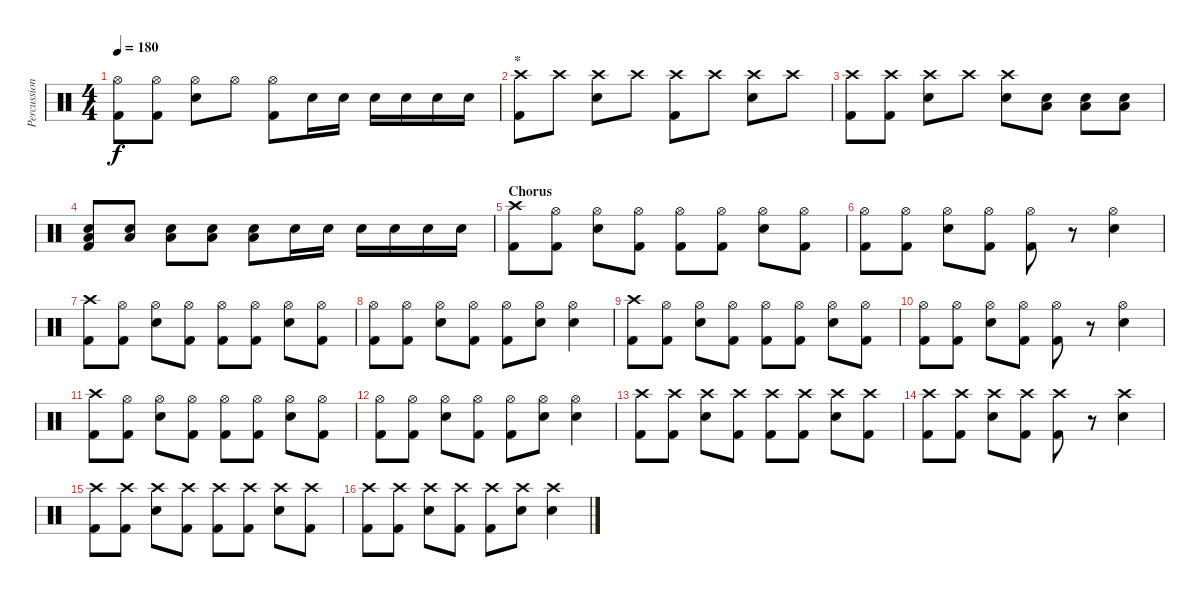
\track ("Percussion" "Percussion") {instrument percussion}
\staff {score}
\articulation defaults
\ts (4 4)
\tempo 180
\clef neutral
\ks c
("Hi-Hat (open)" "Kick (hit) 2").8{dy f} ("Hi-Hat (open)" "Kick (hit) 2").8 ("Hi-Hat (open)" "Snare (hit) 2").8 "Hi-Hat (open)".8 ("Hi-Hat (open)" "Kick (hit) 2").8 "Snare (hit) 2".16 "Snare (hit) 2".16 "Snare (hit) 2".16 "Snare (hit) 2".16 "Snare (hit) 2".16 "Snare (hit) 2".16 |
\section ("" "*")
("Crash high (hit)" "Kick (hit) 2").8 "Crash high (hit)".8 ("Crash high (hit)" "Snare (hit) 2").8 "Crash high (hit)".8 ("Crash high (hit)" "Kick (hit) 2").8 "Crash high (hit)".8 ("Crash high (hit)" "Snare (hit) 2").8 "Crash high (hit)".8 |
("Crash high (hit)" "Kick (hit) 2").8 ("Crash high (hit)" "Kick (hit) 2").8 ("Crash high (hit)" "Snare (hit) 2").8 "Crash high (hit)".8 ("Crash high (hit)" "Snare (hit) 2").8 ("Low Floor Tom (hit)" "Snare (hit) 2").8 ("Low Floor Tom (hit)" "Snare (hit) 2").8 ("Low Floor Tom (hit)" "Snare (hit) 2").8 |
("Low Floor Tom (hit)" "Snare (hit) 2" "Kick (hit) 2").8 ("Low Floor Tom (hit)" "Snare (hit) 2").8 ("Low Floor Tom (hit)" "Snare (hit) 2").8 ("Low Floor Tom (hit)" "Snare (hit) 2").8 ("Low Floor Tom (hit)" "Snare (hit) 2").8 "Snare (hit) 2".16 "Snare (hit) 2".16 "Snare (hit) 2".16 "Snare (hit) 2".16 "Snare (hit) 2".16 "Snare (hit) 2".16 |
\section ("" "Chorus")
("Crash high (hit)" "Kick (hit) 2").8 ("Hi-Hat (open)" "Kick (hit) 2").8 ("Hi-Hat (open)" "Snare (hit) 2").8 ("Hi-Hat (open)" "Kick (hit) 2").8 ("Hi-Hat (open)" "Kick (hit) 2").8 ("Hi-Hat (open)" "Kick (hit) 2").8 ("Hi-Hat (open)" "Snare (hit) 2").8 ("Hi-Hat (open)" "Kick (hit) 2").8 |
("Hi-Hat (open)" "Kick (hit) 2").8 ("Hi-Hat (open)" "Kick (hit) 2").8 ("Hi-Hat (open)" "Snare (hit) 2").8 ("Hi-Hat (open)" "Kick (hit) 2").8 ("Hi-Hat (open)" "Kick (hit) 2").8 r.8 ("Hi-Hat (open)" "Snare (hit) 2").4 |
("Crash high (hit)" "Kick (hit) 2").8 ("Hi-Hat (open)" "Kick (hit) 2").8 ("Hi-Hat (open)" "Snare (hit) 2").8 ("Hi-Hat (open)" "Kick (hit) 2").8 ("Hi-Hat (open)" "Kick (hit) 2").8 ("Hi-Hat (open)" "Kick (hit) 2").8 ("Hi-Hat (open)" "Snare (hit) 2").8 ("Hi-Hat (open)" "Kick (hit) 2").8 |
("Hi-Hat (open)" "Kick (hit) 2").8 ("Hi-Hat (open)" "Kick (hit) 2").8 ("Hi-Hat (open)" "Snare (hit) 2").8 ("Hi-Hat (open)" "Kick (hit) 2").8 ("Hi-Hat (open)" "Kick (hit) 2").8 ("Hi-Hat (open)" "Snare (hit) 2").8 ("Hi-Hat (open)" "Snare (hit) 2").4 |
("Crash high (hit)" "Kick (hit) 2").8 ("Hi-Hat (open)" "Kick (hit) 2").8 ("Hi-Hat (open)" "Snare (hit) 2").8 ("Hi-Hat (open)" "Kick (hit) 2").8 ("Hi-Hat (open)" "Kick (hit) 2").8 ("Hi-Hat (open)" "Kick (hit) 2").8 ("Hi-Hat (open)" "Snare (hit) 2").8 ("Hi-Hat (open)" "Kick (hit) 2").8 |
("Hi-Hat (open)" "Kick (hit) 2").8 ("Hi-Hat (open)" "Kick (hit) 2").8 ("Hi-Hat (open)" "Snare (hit) 2").8 ("Hi-Hat (open)" "Kick (hit) 2").8 ("Hi-Hat (open)" "Kick (hit) 2").8 r.8 ("Hi-Hat (open)" "Snare (hit) 2").4 |
("Crash high (hit)" "Kick (hit) 2").8 ("Hi-Hat (open)" "Kick (hit) 2").8 ("Hi-Hat (open)" "Snare (hit) 2").8 ("Hi-Hat (open)" "Kick (hit) 2").8 ("Hi-Hat (open)" "Kick (hit) 2").8 ("Hi-Hat (open)" "Kick (hit) 2").8 ("Hi-Hat (open)" "Snare (hit) 2").8 ("Hi-Hat (open)" "Kick (hit) 2").8 |
("Hi-Hat (open)" "Kick (hit) 2").8 ("Hi-Hat (open)" "Kick (hit) 2").8 ("Hi-Hat (open)" "Snare (hit) 2").8 ("Hi-Hat (open)" "Kick (hit) 2").8 ("Hi-Hat (open)" "Kick (hit) 2").8 ("Hi-Hat (open)" "Snare (hit) 2").8 ("Hi-Hat (open)" "Snare (hit) 2").4 |
("Crash high (hit)" "Kick (hit) 2").8 ("Crash high (hit)" "Kick (hit) 2").8 ("Crash high (hit)" "Snare (hit) 2").8 ("Crash high (hit)" "Kick (hit) 2").8 ("Crash high (hit)" "Kick (hit) 2").8 ("Crash high (hit)" "Kick (hit) 2").8 ("Crash high (hit)" "Snare (hit) 2").8 ("Crash high (hit)" "Kick (hit) 2").8 |
("Crash high (hit)" "Kick (hit) 2").8 ("Crash high (hit)" "Kick (hit) 2").8 ("Crash high (hit)" "Snare (hit) 2").8 ("Crash high (hit)" "Kick (hit) 2").8 ("Crash high (hit)" "Kick (hit) 2").8 r.8 ("Crash high (hit)" "Snare (hit) 2").4 |
("Crash high (hit)" "Kick (hit) 2").8 ("Crash high (hit)" "Kick (hit) 2").8 ("Crash high (hit)" "Snare (hit) 2").8 ("Crash high (hit)" "Kick (hit) 2").8 ("Crash high (hit)" "Kick (hit) 2").8 ("Crash high (hit)" "Kick (hit) 2").8 ("Crash high (hit)" "Snare (hit) 2").8 ("Crash high (hit)" "Kick (hit) 2").8 |
("Crash high (hit)" "Kick (hit) 2").8 ("Crash high (hit)" "Kick (hit) 2").8 ("Crash high (hit)" "Snare (hit) 2").8 ("Crash high (hit)" "Kick (hit) 2").8 ("Crash high (hit)" "Kick (hit) 2").8 ("Crash high (hit)" "Snare (hit) 2").8 ("Crash high (hit)" "Snare (hit) 2").4
